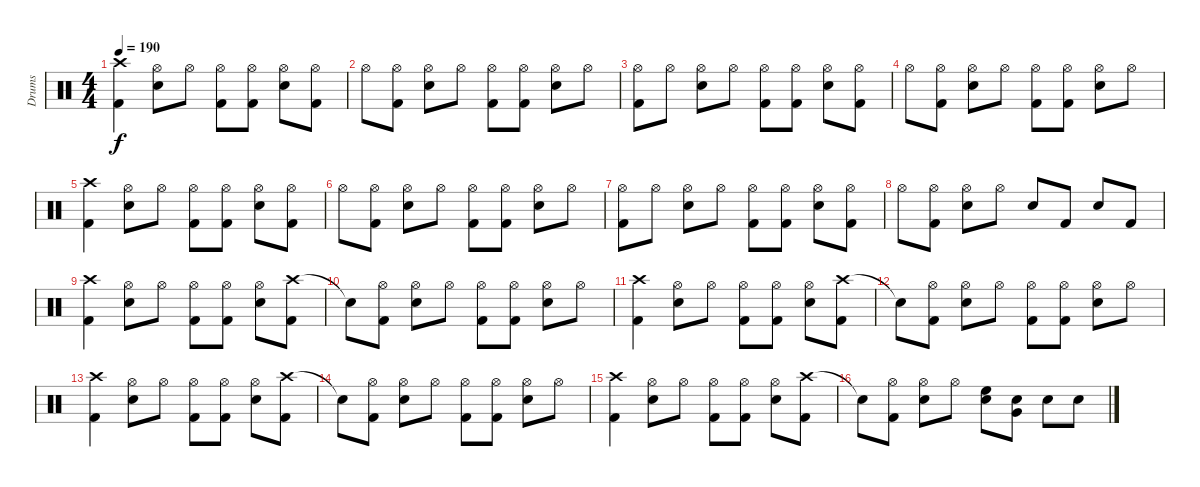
\track ("Drums" "Drums") {instrument percussion}
\staff {score}
\articulation defaults
\ts (4 4)
\tempo 190
\clef neutral
\ks c
("Crash high (hit)" "Kick (hit) 2").4{dy f} ("Hi-Hat (open)" "Electric Snare (hit)").8 "Hi-Hat (open)".8 ("Hi-Hat (open)" "Kick (hit) 2").8 ("Hi-Hat (open)" "Kick (hit) 2").8 ("Hi-Hat (open)" "Electric Snare (hit)").8 ("Hi-Hat (open)" "Kick (hit) 2").8 |
"Hi-Hat (open)".8 ("Hi-Hat (open)" "Kick (hit) 2").8 ("Hi-Hat (open)" "Electric Snare (hit)").8 "Hi-Hat (open)".8 ("Hi-Hat (open)" "Kick (hit) 2").8 ("Hi-Hat (open)" "Kick (hit) 2").8 ("Hi-Hat (open)" "Electric Snare (hit)").8 "Hi-Hat (open)".8 |
("Hi-Hat (open)" "Kick (hit) 2").8 "Hi-Hat (open)".8 ("Hi-Hat (open)" "Electric Snare (hit)").8 "Hi-Hat (open)".8 ("Hi-Hat (open)" "Kick (hit) 2").8 ("Hi-Hat (open)" "Kick (hit) 2").8 ("Hi-Hat (open)" "Electric Snare (hit)").8 ("Hi-Hat (open)" "Kick (hit) 2").8 |
"Hi-Hat (open)".8 ("Hi-Hat (open)" "Kick (hit) 2").8 ("Hi-Hat (open)" "Electric Snare (hit)").8 "Hi-Hat (open)".8 ("Hi-Hat (open)" "Kick (hit) 2").8 ("Hi-Hat (open)" "Kick (hit) 2").8 ("Hi-Hat (open)" "Electric Snare (hit)").8 "Hi-Hat (open)".8 |
("Crash high (hit)" "Kick (hit) 2").4 ("Hi-Hat (open)" "Electric Snare (hit)").8 "Hi-Hat (open)".8 ("Hi-Hat (open)" "Kick (hit) 2").8 ("Hi-Hat (open)" "Kick (hit) 2").8 ("Hi-Hat (open)" "Electric Snare (hit)").8 ("Hi-Hat (open)" "Kick (hit) 2").8 |
"Hi-Hat (open)".8 ("Hi-Hat (open)" "Kick (hit) 2").8 ("Hi-Hat (open)" "Electric Snare (hit)").8 "Hi-Hat (open)".8 ("Hi-Hat (open)" "Kick (hit) 2").8 ("Hi-Hat (open)" "Kick (hit) 2").8 ("Hi-Hat (open)" "Electric Snare (hit)").8 "Hi-Hat (open)".8 |
("Hi-Hat (open)" "Kick (hit) 2").8 "Hi-Hat (open)".8 ("Hi-Hat (open)" "Electric Snare (hit)").8 "Hi-Hat (open)".8 ("Hi-Hat (open)" "Kick (hit) 2").8 ("Hi-Hat (open)" "Kick (hit) 2").8 ("Hi-Hat (open)" "Electric Snare (hit)").8 ("Hi-Hat (open)" "Kick (hit) 2").8 |
"Hi-Hat (open)".8 ("Hi-Hat (open)" "Kick (hit) 2").8 ("Hi-Hat (open)" "Electric Snare (hit)").8 "Hi-Hat (open)".8 "Electric Snare (hit)".8 "Kick (hit) 2".8 "Electric Snare (hit)".8 "Kick (hit) 2".8 |
("Crash high (hit)" "Kick (hit) 2").4 ("Hi-Hat (open)" "Electric Snare (hit)").8 "Hi-Hat (open)".8 ("Hi-Hat (open)" "Kick (hit) 2").8 ("Hi-Hat (open)" "Kick (hit) 2").8 ("Hi-Hat (open)" "Electric Snare (hit)").8 ("Crash high (hit)" "Kick (hit) 2").8 |
"Snare (hit)"{t}.8 ("Hi-Hat (open)" "Kick (hit) 2").8 ("Hi-Hat (open)" "Electric Snare (hit)").8 "Hi-Hat (open)".8 ("Hi-Hat (open)" "Kick (hit) 2").8 ("Hi-Hat (open)" "Kick (hit) 2").8 ("Hi-Hat (open)" "Electric Snare (hit)").8 "Hi-Hat (open)".8 |
("Crash high (hit)" "Kick (hit) 2").4 ("Hi-Hat (open)" "Electric Snare (hit)").8 "Hi-Hat (open)".8 ("Hi-Hat (open)" "Kick (hit) 2").8 ("Hi-Hat (open)" "Kick (hit) 2").8 ("Hi-Hat (open)" "Electric Snare (hit)").8 ("Crash high (hit)" "Kick (hit) 2").8 |
"Snare (hit)"{t}.8 ("Hi-Hat (open)" "Kick (hit) 2").8 ("Hi-Hat (open)" "Electric Snare (hit)").8 "Hi-Hat (open)".8 ("Hi-Hat (open)" "Kick (hit) 2").8 ("Hi-Hat (open)" "Kick (hit) 2").8 ("Hi-Hat (open)" "Electric Snare (hit)").8 "Hi-Hat (open)".8 |
("Crash high (hit)" "Kick (hit) 2").4 ("Hi-Hat (open)" "Electric Snare (hit)").8 "Hi-Hat (open)".8 ("Hi-Hat (open)" "Kick (hit) 2").8 ("Hi-Hat (open)" "Kick (hit) 2").8 ("Hi-Hat (open)" "Electric Snare (hit)").8 ("Crash high (hit)" "Kick (hit) 2").8 |
"Snare (hit)"{t}.8 ("Hi-Hat (open)" "Kick (hit) 2").8 ("Hi-Hat (open)" "Electric Snare (hit)").8 "Hi-Hat (open)".8 ("Hi-Hat (open)" "Kick (hit) 2").8 ("Hi-Hat (open)" "Kick (hit) 2").8 ("Hi-Hat (open)" "Electric Snare (hit)").8 "Hi-Hat (open)".8 |
("Crash high (hit)" "Kick (hit) 2").4 ("Hi-Hat (open)" "Electric Snare (hit)").8 "Hi-Hat (open)".8 ("Hi-Hat (open)" "Kick (hit) 2").8 ("Hi-Hat (open)" "Kick (hit) 2").8 ("Hi-Hat (open)" "Electric Snare (hit)").8 ("Crash high (hit)" "Kick (hit) 2").8 |
"Snare (hit)"{t}.8 ("Hi-Hat (open)" "Kick (hit) 2").8 ("Hi-Hat (open)" "Electric Snare (hit)").8 "Hi-Hat (open)".8 ("High Floor Tom (hit)" "Electric Snare (hit)").8 ("Very Low Tom (hit)" "Electric Snare (hit)").8 "Electric Snare (hit)".8 "Electric Snare (hit)".8
